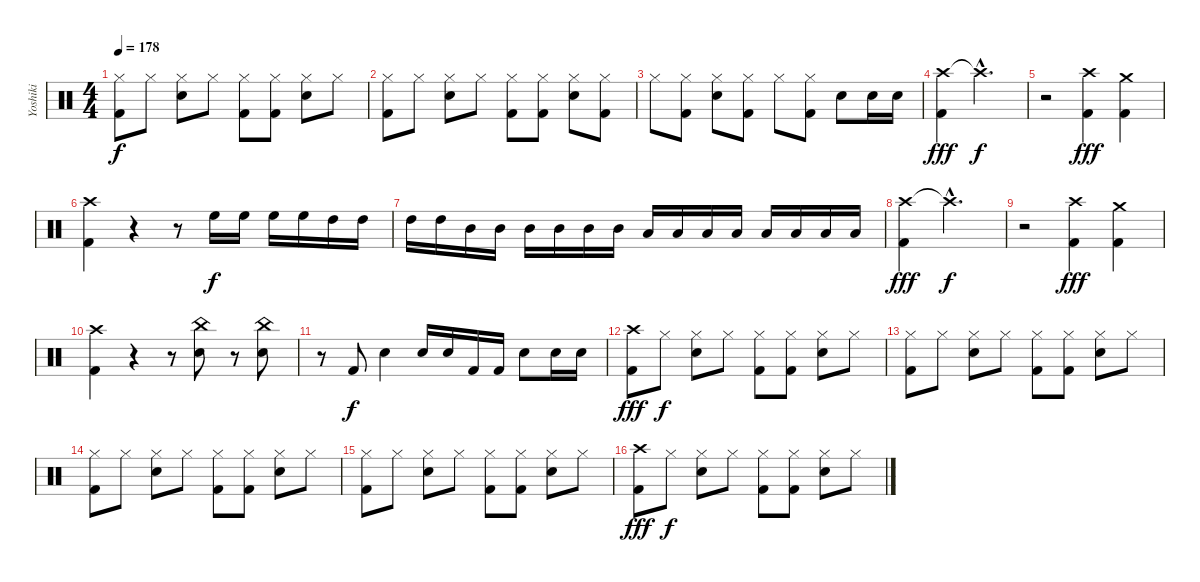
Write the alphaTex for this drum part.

\track ("Yoshiki" "Yoshiki") {instrument percussion}
\staff {score}
\articulation defaults
\ts (4 4)
\tempo 178
\clef neutral
\ks c
("Hi-Hat (closed)" "Kick (hit) 2").8{dy f} "Hi-Hat (closed)".8 ("Hi-Hat (closed)" "Snare (hit) 2").8 "Hi-Hat (closed)".8 ("Hi-Hat (closed)" "Kick (hit) 2").8 ("Hi-Hat (closed)" "Kick (hit) 2").8 ("Hi-Hat (closed)" "Snare (hit) 2").8 "Hi-Hat (closed)".8 |
("Hi-Hat (closed)" "Kick (hit) 2").8 "Hi-Hat (closed)".8 ("Hi-Hat (closed)" "Snare (hit) 2").8 "Hi-Hat (closed)".8 ("Hi-Hat (closed)" "Kick (hit) 2").8 ("Hi-Hat (closed)" "Kick (hit) 2").8 ("Hi-Hat (closed)" "Snare (hit) 2").8 ("Hi-Hat (closed)" "Kick (hit) 2").8 |
"Hi-Hat (closed)".8 ("Hi-Hat (closed)" "Kick (hit) 2").8 ("Hi-Hat (closed)" "Snare (hit) 2").8 ("Hi-Hat (closed)" "Kick (hit) 2").8 "Hi-Hat (closed)".8 ("Hi-Hat (closed)" "Kick (hit) 2").8 "Snare (hit) 2".8 "Snare (hit) 2".16 "Snare (hit) 2".16 |
("Crash high (hit)" "Kick (hit) 2").4{dy fff} "Crash high (hit)"{hac t}.2{d dy f} |
r.2 ("Crash high (hit)" "Kick (hit) 2").4{dy fff} ("Crash medium (hit)" "Kick (hit) 2").4 |
("Crash high (hit)" "Kick (hit) 2").4 r.4 r.8 "High Floor Tom (hit)".16{dy f} "High Floor Tom (hit)".16 "High Floor Tom (hit)".16 "High Floor Tom (hit)".16 "High Tom (hit)".16 "High Tom (hit)".16 |
"High Tom (hit)".16 "High Tom (hit)".16 "Mid Tom (hit)".16 "Mid Tom (hit)".16 "Mid Tom (hit)".16 "Mid Tom (hit)".16 "Mid Tom (hit)".16 "Mid Tom (hit)".16 "Low Tom (hit)".16 "Low Tom (hit)".16 "Low Tom (hit)".16 "Low Tom (hit)".16 "Low Tom (hit)".16 "Low Tom (hit)".16 "Low Tom (hit)".16 "Low Tom (hit)".16 |
("Crash high (hit)" "Kick (hit) 2").4{dy fff} "Crash high (hit)"{hac t}.2{d dy f} |
r.2 ("Crash high (hit)" "Kick (hit) 2").4{dy fff} ("Crash medium (hit)" "Kick (hit) 2").4 |
("Crash high (hit)" "Kick (hit) 2").4 r.4 r.8 ("China (hit)" "Snare (hit) 2").8 r.8 ("China (hit)" "Snare (hit) 2").8 |
r.8 "Kick (hit) 2".8{dy f} "Snare (hit) 2".4 "Snare (hit) 2".16 "Snare (hit) 2".16 "Kick (hit) 2".16 "Kick (hit) 2".16 "Snare (hit) 2".8 "Snare (hit) 2".16 "Snare (hit) 2".16 |
("Crash high (hit)" "Kick (hit) 2").8{dy fff} "Hi-Hat (closed)".8{dy f} ("Hi-Hat (closed)" "Snare (hit) 2").8 "Hi-Hat (closed)".8 ("Hi-Hat (closed)" "Kick (hit) 2").8 ("Hi-Hat (closed)" "Kick (hit) 2").8 ("Hi-Hat (closed)" "Snare (hit) 2").8 "Hi-Hat (closed)".8 |
("Hi-Hat (closed)" "Kick (hit) 2").8 "Hi-Hat (closed)".8 ("Hi-Hat (closed)" "Snare (hit) 2").8 "Hi-Hat (closed)".8 ("Hi-Hat (closed)" "Kick (hit) 2").8 ("Hi-Hat (closed)" "Kick (hit) 2").8 ("Hi-Hat (closed)" "Snare (hit) 2").8 "Hi-Hat (closed)".8 |
("Hi-Hat (closed)" "Kick (hit) 2").8 "Hi-Hat (closed)".8 ("Hi-Hat (closed)" "Snare (hit) 2").8 "Hi-Hat (closed)".8 ("Hi-Hat (closed)" "Kick (hit) 2").8 ("Hi-Hat (closed)" "Kick (hit) 2").8 ("Hi-Hat (closed)" "Snare (hit) 2").8 "Hi-Hat (closed)".8 |
("Hi-Hat (closed)" "Kick (hit) 2").8 "Hi-Hat (closed)".8 ("Hi-Hat (closed)" "Snare (hit) 2").8 "Hi-Hat (closed)".8 ("Hi-Hat (closed)" "Kick (hit) 2").8 ("Hi-Hat (closed)" "Kick (hit) 2").8 ("Hi-Hat (closed)" "Snare (hit) 2").8 "Hi-Hat (closed)".8 |
("Crash high (hit)" "Kick (hit) 2").8{dy fff} "Hi-Hat (closed)".8{dy f} ("Hi-Hat (closed)" "Snare (hit) 2").8 "Hi-Hat (closed)".8 ("Hi-Hat (closed)" "Kick (hit) 2").8 ("Hi-Hat (closed)" "Kick (hit) 2").8 ("Hi-Hat (closed)" "Snare (hit) 2").8 "Hi-Hat (closed)".8
